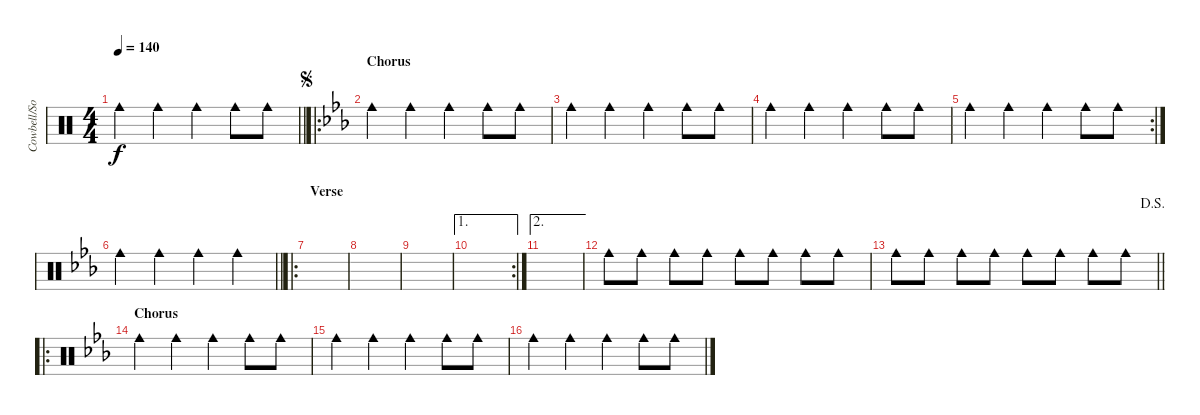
\track ("Cowbell/Sound FX (Leah)" "Cowbell/So") {instrument percussion}
\staff {score}
\articulation defaults
\ts (4 4)
\tempo 140
\clef neutral
\barLineRight lightlight
\ks c "Cowbell medium (hit)".4{dy f} "Cowbell medium (hit)".4 "Cowbell medium (hit)".4 "Cowbell medium (hit)".8 "Cowbell medium (hit)".8
|
\ro
\section ("" "Chorus")
\jump segno
\ks cminor "Cowbell medium (hit)".4 "Cowbell medium (hit)".4 "Cowbell medium (hit)".4 "Cowbell medium (hit)".8 "Cowbell medium (hit)".8
|
"Cowbell medium (hit)".4 "Cowbell medium (hit)".4 "Cowbell medium (hit)".4 "Cowbell medium (hit)".8 "Cowbell medium (hit)".8 |
"Cowbell medium (hit)".4 "Cowbell medium (hit)".4 "Cowbell medium (hit)".4 "Cowbell medium (hit)".8 "Cowbell medium (hit)".8 |
\rc 2 "Cowbell medium (hit)".4 "Cowbell medium (hit)".4 "Cowbell medium (hit)".4 "Cowbell medium (hit)".8 "Cowbell medium (hit)".8
|
\barLineRight lightlight "Cowbell medium (hit)".4 "Cowbell medium (hit)".4 "Cowbell medium (hit)".4 "Cowbell medium (hit)".4
|
\ro
\section ("" "Verse")
|
|
|
\ae 1
\rc 2
|
\ae 2
|
"Cowbell medium (hit)".8 "Cowbell medium (hit)".8 "Cowbell medium (hit)".8 "Cowbell medium (hit)".8 "Cowbell medium (hit)".8 "Cowbell medium (hit)".8 "Cowbell medium (hit)".8 "Cowbell medium (hit)".8 |
\jump dalsegno
\barLineRight lightlight "Cowbell medium (hit)".8 "Cowbell medium (hit)".8 "Cowbell medium (hit)".8 "Cowbell medium (hit)".8 "Cowbell medium (hit)".8 "Cowbell medium (hit)".8 "Cowbell medium (hit)".8 "Cowbell medium (hit)".8
|
\ro
\section ("" "Chorus")
"Cowbell medium (hit)".4 "Cowbell medium (hit)".4 "Cowbell medium (hit)".4 "Cowbell medium (hit)".8 "Cowbell medium (hit)".8 |
"Cowbell medium (hit)".4 "Cowbell medium (hit)".4 "Cowbell medium (hit)".4 "Cowbell medium (hit)".8 "Cowbell medium (hit)".8 |
"Cowbell medium (hit)".4 "Cowbell medium (hit)".4 "Cowbell medium (hit)".4 "Cowbell medium (hit)".8 "Cowbell medium (hit)".8
